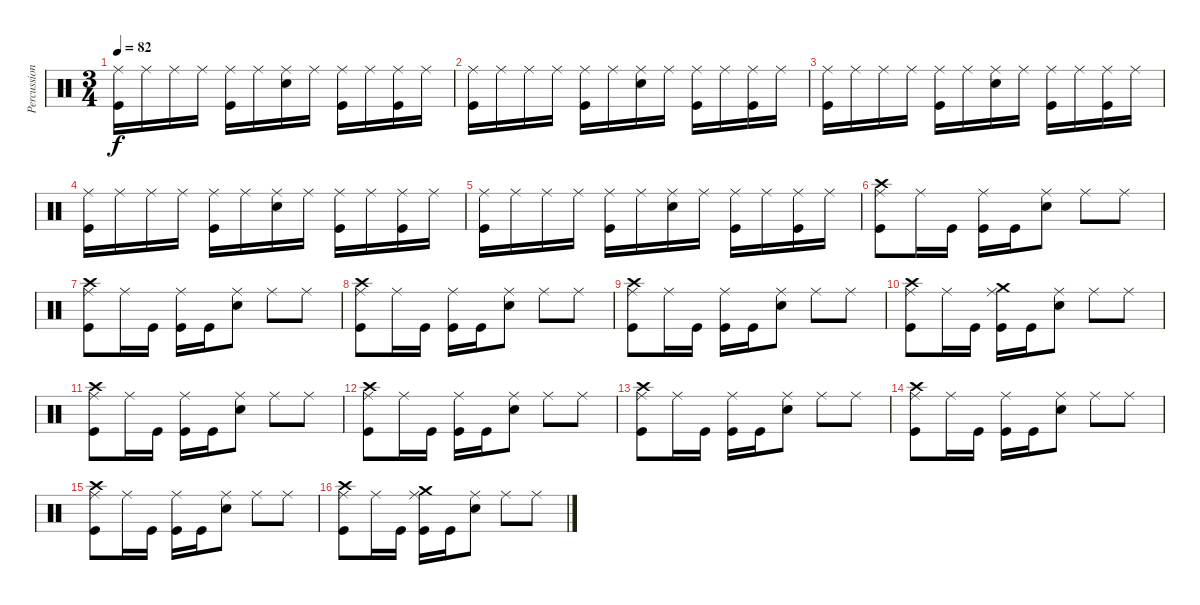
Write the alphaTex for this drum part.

\track ("Percussions" "Percussion") {instrument percussion}
\staff {score}
\articulation defaults
\ts (3 4)
\tempo 82
\clef neutral
\ks c
("Ride (middle)" "Kick (hit)").16{dy f} "Ride (middle)".16 "Ride (middle)".16 "Ride (middle)".16 ("Ride (middle)" "Kick (hit)").16 "Ride (middle)".16 ("Ride (middle)" "Electric Snare (hit)").16 "Ride (middle)".16 ("Ride (middle)" "Kick (hit)").16 "Ride (middle)".16 ("Ride (middle)" "Kick (hit)").16 "Ride (middle)".16 |
("Ride (middle)" "Kick (hit)").16 "Ride (middle)".16 "Ride (middle)".16 "Ride (middle)".16 ("Ride (middle)" "Kick (hit)").16 "Ride (middle)".16 ("Ride (middle)" "Electric Snare (hit)").16 "Ride (middle)".16 ("Ride (middle)" "Kick (hit)").16 "Ride (middle)".16 ("Ride (middle)" "Kick (hit)").16 "Ride (middle)".16 |
("Ride (middle)" "Kick (hit)").16 "Ride (middle)".16 "Ride (middle)".16 "Ride (middle)".16 ("Ride (middle)" "Kick (hit)").16 "Ride (middle)".16 ("Ride (middle)" "Electric Snare (hit)").16 "Ride (middle)".16 ("Ride (middle)" "Kick (hit)").16 "Ride (middle)".16 ("Ride (middle)" "Kick (hit)").16 "Ride (middle)".16 |
("Ride (middle)" "Kick (hit)").16 "Ride (middle)".16 "Ride (middle)".16 "Ride (middle)".16 ("Ride (middle)" "Kick (hit)").16 "Ride (middle)".16 ("Ride (middle)" "Electric Snare (hit)").16 "Ride (middle)".16 ("Ride (middle)" "Kick (hit)").16 "Ride (middle)".16 ("Ride (middle)" "Kick (hit)").16 "Ride (middle)".16 |
("Ride (middle)" "Kick (hit)").16 "Ride (middle)".16 "Ride (middle)".16 "Ride (middle)".16 ("Ride (middle)" "Kick (hit)").16 "Ride (middle)".16 ("Ride (middle)" "Electric Snare (hit)").16 "Ride (middle)".16 ("Ride (middle)" "Kick (hit)").16 "Ride (middle)".16 ("Ride (middle)" "Kick (hit)").16 "Ride (middle)".16 |
("Ride (middle)" "Crash high (hit)" "Kick (hit)").8 "Ride (middle)".16 "Kick (hit)".16 ("Ride (middle)" "Kick (hit)").16 "Kick (hit)".16 ("Ride (middle)" "Electric Snare (hit)").8 "Ride (middle)".8 "Ride (middle)".8 |
("Ride (middle)" "Crash high (hit)" "Kick (hit)").8 "Ride (middle)".16 "Kick (hit)".16 ("Ride (middle)" "Kick (hit)").16 "Kick (hit)".16 ("Ride (middle)" "Electric Snare (hit)").8 "Ride (middle)".8 "Ride (middle)".8 |
("Ride (middle)" "Crash high (hit)" "Kick (hit)").8 "Ride (middle)".16 "Kick (hit)".16 ("Ride (middle)" "Kick (hit)").16 "Kick (hit)".16 ("Ride (middle)" "Electric Snare (hit)").8 "Ride (middle)".8 "Ride (middle)".8 |
("Ride (middle)" "Crash high (hit)" "Kick (hit)").8 "Ride (middle)".16 "Kick (hit)".16 ("Ride (middle)" "Kick (hit)").16 "Kick (hit)".16 ("Ride (middle)" "Electric Snare (hit)").8 "Ride (middle)".8 "Ride (middle)".8 |
("Ride (middle)" "Crash high (hit)" "Kick (hit)").8 "Ride (middle)".16 "Kick (hit)".16 ("Ride (middle)" "Crash medium (hit)" "Kick (hit)").16 "Kick (hit)".16 ("Ride (middle)" "Electric Snare (hit)").8 "Ride (middle)".8 "Ride (middle)".8 |
("Ride (middle)" "Crash high (hit)" "Kick (hit)").8 "Ride (middle)".16 "Kick (hit)".16 ("Ride (middle)" "Kick (hit)").16 "Kick (hit)".16 ("Ride (middle)" "Electric Snare (hit)").8 "Ride (middle)".8 "Ride (middle)".8 |
("Ride (middle)" "Crash high (hit)" "Kick (hit)").8 "Ride (middle)".16 "Kick (hit)".16 ("Ride (middle)" "Kick (hit)").16 "Kick (hit)".16 ("Ride (middle)" "Electric Snare (hit)").8 "Ride (middle)".8 "Ride (middle)".8 |
("Ride (middle)" "Crash high (hit)" "Kick (hit)").8 "Ride (middle)".16 "Kick (hit)".16 ("Ride (middle)" "Kick (hit)").16 "Kick (hit)".16 ("Ride (middle)" "Electric Snare (hit)").8 "Ride (middle)".8 "Ride (middle)".8 |
("Ride (middle)" "Crash high (hit)" "Kick (hit)").8 "Ride (middle)".16 "Kick (hit)".16 ("Ride (middle)" "Kick (hit)").16 "Kick (hit)".16 ("Ride (middle)" "Electric Snare (hit)").8 "Ride (middle)".8 "Ride (middle)".8 |
("Ride (middle)" "Crash high (hit)" "Kick (hit)").8 "Ride (middle)".16 "Kick (hit)".16 ("Ride (middle)" "Kick (hit)").16 "Kick (hit)".16 ("Ride (middle)" "Electric Snare (hit)").8 "Ride (middle)".8 "Ride (middle)".8 |
("Ride (middle)" "Crash high (hit)" "Kick (hit)").8 "Ride (middle)".16 "Kick (hit)".16 ("Ride (middle)" "Crash medium (hit)" "Kick (hit)").16 "Kick (hit)".16 ("Ride (middle)" "Electric Snare (hit)").8 "Ride (middle)".8 "Ride (middle)".8
